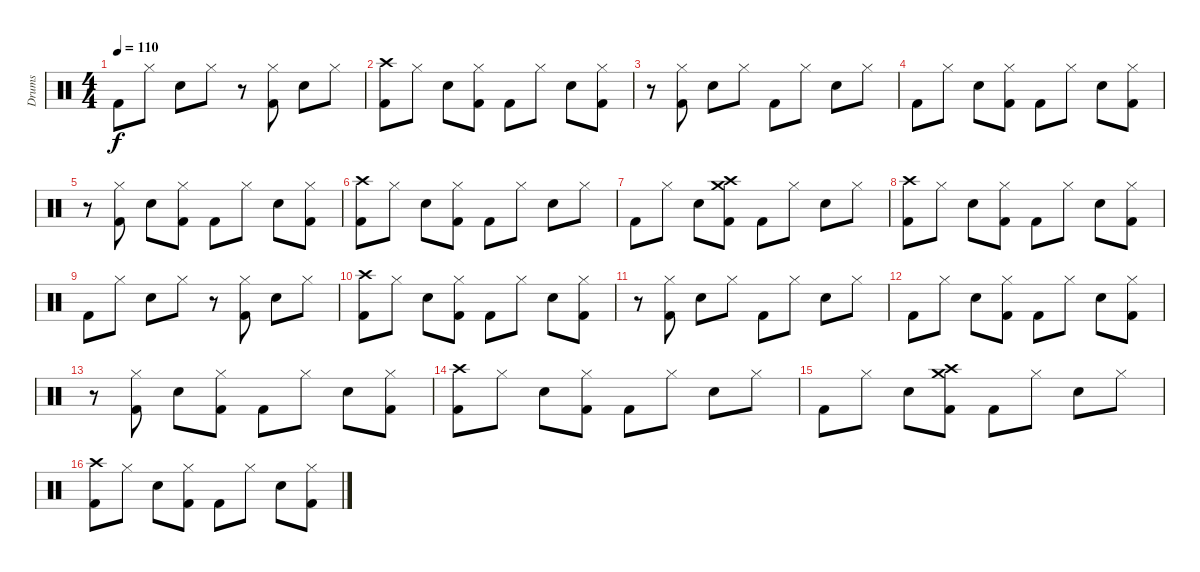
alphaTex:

\track ("Drums" "Drums") {instrument percussion}
\staff {score}
\articulation defaults
\ts (4 4)
\tempo 110
\clef neutral
\ks c "Kick (hit) 2".8{dy f} "Hi-Hat (closed)".8 "Snare (hit) 2".8 "Hi-Hat (closed)".8
r.8 ("Kick (hit) 2" "Hi-Hat (closed)").8 "Snare (hit) 2".8 "Hi-Hat (closed)".8 |
("Kick (hit) 2" "Crash high (hit)").8 "Hi-Hat (closed)".8 "Snare (hit) 2".8 ("Kick (hit) 2" "Hi-Hat (closed)").8 "Kick (hit) 2".8 "Hi-Hat (closed)".8 "Snare (hit) 2".8 ("Kick (hit) 2" "Hi-Hat (closed)").8 |
r.8 ("Kick (hit) 2" "Hi-Hat (closed)").8 "Snare (hit) 2".8 "Hi-Hat (closed)".8 "Kick (hit) 2".8 "Hi-Hat (closed)".8 "Snare (hit) 2".8 "Hi-Hat (closed)".8 |
"Kick (hit) 2".8 "Hi-Hat (closed)".8 "Snare (hit) 2".8 ("Kick (hit) 2" "Hi-Hat (closed)").8 "Kick (hit) 2".8 "Hi-Hat (closed)".8 "Snare (hit) 2".8 ("Kick (hit) 2" "Hi-Hat (closed)").8 |
r.8 ("Kick (hit) 2" "Hi-Hat (closed)").8 "Snare (hit) 2".8 ("Kick (hit) 2" "Hi-Hat (closed)").8 "Kick (hit) 2".8 "Hi-Hat (closed)".8 "Snare (hit) 2".8 ("Kick (hit) 2" "Hi-Hat (closed)").8 |
("Kick (hit) 2" "Crash high (hit)").8 "Hi-Hat (closed)".8 "Snare (hit) 2".8 ("Kick (hit) 2" "Hi-Hat (closed)").8 "Kick (hit) 2".8 "Hi-Hat (closed)".8 "Snare (hit) 2".8 "Hi-Hat (closed)".8 |
"Kick (hit) 2".8 "Hi-Hat (closed)".8 "Snare (hit) 2".8 ("Kick (hit) 2" "Crash high (hit)" "Crash medium (hit)").8 "Kick (hit) 2".8 "Hi-Hat (closed)".8 "Snare (hit) 2".8 "Hi-Hat (closed)".8 |
("Kick (hit) 2" "Crash high (hit)").8 "Hi-Hat (closed)".8 "Snare (hit) 2".8 ("Kick (hit) 2" "Hi-Hat (closed)").8 "Kick (hit) 2".8 "Hi-Hat (closed)".8 "Snare (hit) 2".8 ("Kick (hit) 2" "Hi-Hat (closed)").8 |
"Kick (hit) 2".8 "Hi-Hat (closed)".8 "Snare (hit) 2".8 "Hi-Hat (closed)".8 r.8 ("Kick (hit) 2" "Hi-Hat (closed)").8 "Snare (hit) 2".8 "Hi-Hat (closed)".8 |
("Kick (hit) 2" "Crash high (hit)").8 "Hi-Hat (closed)".8 "Snare (hit) 2".8 ("Kick (hit) 2" "Hi-Hat (closed)").8 "Kick (hit) 2".8 "Hi-Hat (closed)".8 "Snare (hit) 2".8 ("Kick (hit) 2" "Hi-Hat (closed)").8 |
r.8 ("Kick (hit) 2" "Hi-Hat (closed)").8 "Snare (hit) 2".8 "Hi-Hat (closed)".8 "Kick (hit) 2".8 "Hi-Hat (closed)".8 "Snare (hit) 2".8 "Hi-Hat (closed)".8 |
"Kick (hit) 2".8 "Hi-Hat (closed)".8 "Snare (hit) 2".8 ("Kick (hit) 2" "Hi-Hat (closed)").8 "Kick (hit) 2".8 "Hi-Hat (closed)".8 "Snare (hit) 2".8 ("Kick (hit) 2" "Hi-Hat (closed)").8 |
r.8 ("Kick (hit) 2" "Hi-Hat (closed)").8 "Snare (hit) 2".8 ("Kick (hit) 2" "Hi-Hat (closed)").8 "Kick (hit) 2".8 "Hi-Hat (closed)".8 "Snare (hit) 2".8 ("Kick (hit) 2" "Hi-Hat (closed)").8 |
("Kick (hit) 2" "Crash high (hit)").8 "Hi-Hat (closed)".8 "Snare (hit) 2".8 ("Kick (hit) 2" "Hi-Hat (closed)").8 "Kick (hit) 2".8 "Hi-Hat (closed)".8 "Snare (hit) 2".8 "Hi-Hat (closed)".8 |
"Kick (hit) 2".8 "Hi-Hat (closed)".8 "Snare (hit) 2".8 ("Kick (hit) 2" "Crash high (hit)" "Crash medium (hit)").8 "Kick (hit) 2".8 "Hi-Hat (closed)".8 "Snare (hit) 2".8 "Hi-Hat (closed)".8 |
("Kick (hit) 2" "Crash high (hit)").8 "Hi-Hat (closed)".8 "Snare (hit) 2".8 ("Kick (hit) 2" "Hi-Hat (closed)").8 "Kick (hit) 2".8 "Hi-Hat (closed)".8 "Snare (hit) 2".8 ("Kick (hit) 2" "Hi-Hat (closed)").8
